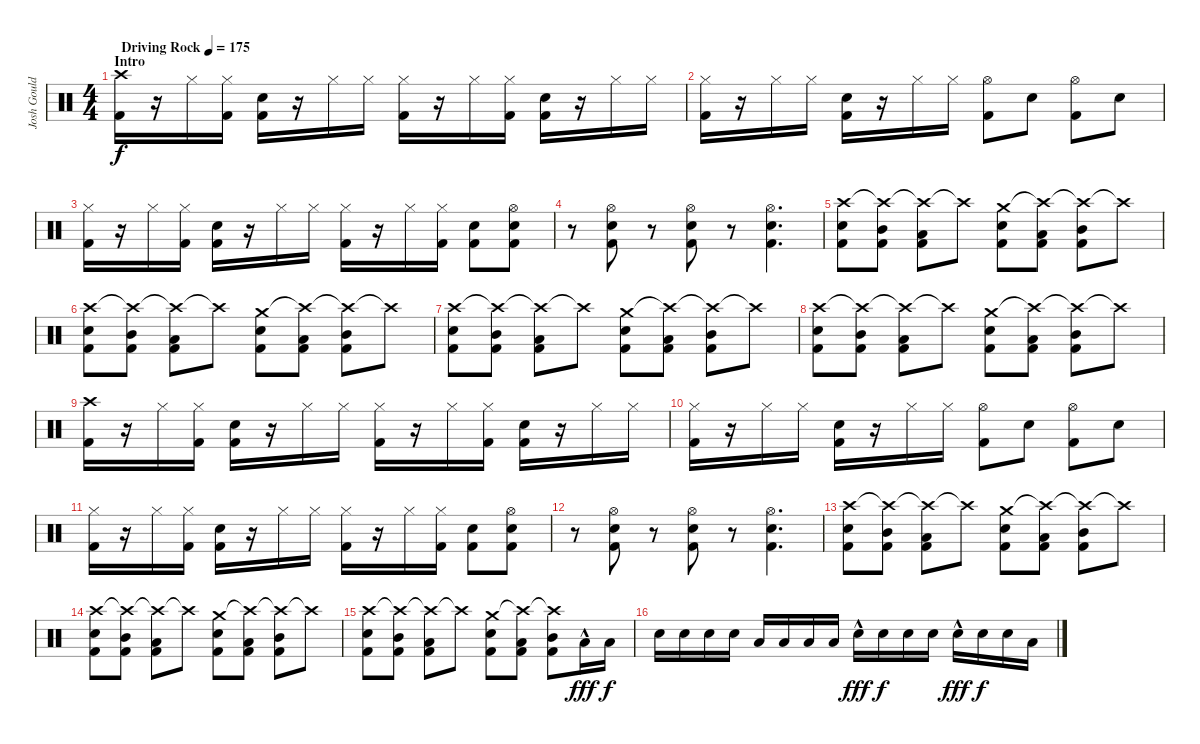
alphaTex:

\track ("Josh Gould - Drums" "Josh Gould") {instrument percussion}
\staff {score}
\articulation defaults
\ts (4 4)
\section ("" "Intro")
\tempo (175 "Driving Rock")
\clef neutral
\ks c
("Crash high (hit)" "Kick (hit) 2").16{dy f} r.16 "Hi-Hat (closed)".16 ("Hi-Hat (closed)" "Kick (hit) 2").16 ("Snare (hit) 2" "Kick (hit) 2").16 r.16 "Hi-Hat (closed)".16 "Hi-Hat (closed)".16 ("Hi-Hat (closed)" "Kick (hit) 2").16 r.16 "Hi-Hat (closed)".16 ("Hi-Hat (closed)" "Kick (hit) 2").16 ("Snare (hit) 2" "Kick (hit) 2").16 r.16 "Hi-Hat (closed)".16 "Hi-Hat (closed)".16 |
("Hi-Hat (closed)" "Kick (hit) 2").16 r.16 "Hi-Hat (closed)".16 "Hi-Hat (closed)".16 ("Snare (hit) 2" "Kick (hit) 2").16 r.16 "Hi-Hat (closed)".16 "Hi-Hat (closed)".16 ("Hi-Hat (open)" "Kick (hit) 2").8 "Snare (hit) 2".8 ("Hi-Hat (open)" "Kick (hit) 2").8 "Snare (hit) 2".8 |
("Hi-Hat (closed)" "Kick (hit) 2").16 r.16 "Hi-Hat (closed)".16 ("Hi-Hat (closed)" "Kick (hit) 2").16 ("Snare (hit) 2" "Kick (hit) 2").16 r.16 "Hi-Hat (closed)".16 "Hi-Hat (closed)".16 ("Hi-Hat (closed)" "Kick (hit) 2").16 r.16 "Hi-Hat (closed)".16 ("Hi-Hat (closed)" "Kick (hit) 2").16 ("Snare (hit) 2" "Kick (hit) 2").8 ("Hi-Hat (open)" "Snare (hit) 2" "Kick (hit) 2").8 |
r.8 ("Hi-Hat (open)" "Snare (hit) 2" "Kick (hit) 2").8 r.8 ("Hi-Hat (open)" "Snare (hit) 2" "Kick (hit) 2").8 r.8 ("Hi-Hat (open)" "Snare (hit) 2" "Kick (hit) 2").4{d} |
("Crash high (hit)" "Snare (hit) 2" "Kick (hit) 2").8 ("Crash high (hit)"{t} "Mid Tom (hit)" "Kick (hit) 2").8 ("Crash high (hit)"{t} "Low Tom (hit)" "Kick (hit) 2").8 "Crash high (hit)"{t}.8 ("Crash medium (hit)" "Snare (hit) 2" "Kick (hit) 2").8 ("Crash high (hit)"{t} "Low Tom (hit)" "Kick (hit) 2").8 ("Crash high (hit)"{t} "Mid Tom (hit)" "Kick (hit) 2").8 "Crash high (hit)"{t}.8 |
("Crash high (hit)" "Snare (hit) 2" "Kick (hit) 2").8 ("Crash high (hit)"{t} "Mid Tom (hit)" "Kick (hit) 2").8 ("Crash high (hit)"{t} "Low Tom (hit)" "Kick (hit) 2").8 "Crash high (hit)"{t}.8 ("Crash medium (hit)" "Snare (hit) 2" "Kick (hit) 2").8 ("Crash high (hit)"{t} "Low Tom (hit)" "Kick (hit) 2").8 ("Crash high (hit)"{t} "Mid Tom (hit)" "Kick (hit) 2").8 "Crash high (hit)"{t}.8 |
("Crash high (hit)" "Snare (hit) 2" "Kick (hit) 2").8 ("Crash high (hit)"{t} "Mid Tom (hit)" "Kick (hit) 2").8 ("Crash high (hit)"{t} "Low Tom (hit)" "Kick (hit) 2").8 "Crash high (hit)"{t}.8 ("Crash medium (hit)" "Snare (hit) 2" "Kick (hit) 2").8 ("Crash high (hit)"{t} "Low Tom (hit)" "Kick (hit) 2").8 ("Crash high (hit)"{t} "Mid Tom (hit)" "Kick (hit) 2").8 "Crash high (hit)"{t}.8 |
("Crash high (hit)" "Snare (hit) 2" "Kick (hit) 2").8 ("Crash high (hit)"{t} "Mid Tom (hit)" "Kick (hit) 2").8 ("Crash high (hit)"{t} "Low Tom (hit)" "Kick (hit) 2").8 "Crash high (hit)"{t}.8 ("Crash medium (hit)" "Snare (hit) 2" "Kick (hit) 2").8 ("Crash high (hit)"{t} "Low Tom (hit)" "Kick (hit) 2").8 ("Crash high (hit)"{t} "Mid Tom (hit)" "Kick (hit) 2").8 "Crash high (hit)"{t}.8 |
("Crash high (hit)" "Kick (hit) 2").16 r.16 "Hi-Hat (closed)".16 ("Hi-Hat (closed)" "Kick (hit) 2").16 ("Snare (hit) 2" "Kick (hit) 2").16 r.16 "Hi-Hat (closed)".16 "Hi-Hat (closed)".16 ("Hi-Hat (closed)" "Kick (hit) 2").16 r.16 "Hi-Hat (closed)".16 ("Hi-Hat (closed)" "Kick (hit) 2").16 ("Snare (hit) 2" "Kick (hit) 2").16 r.16 "Hi-Hat (closed)".16 "Hi-Hat (closed)".16 |
("Hi-Hat (closed)" "Kick (hit) 2").16 r.16 "Hi-Hat (closed)".16 "Hi-Hat (closed)".16 ("Snare (hit) 2" "Kick (hit) 2").16 r.16 "Hi-Hat (closed)".16 "Hi-Hat (closed)".16 ("Hi-Hat (open)" "Kick (hit) 2").8 "Snare (hit) 2".8 ("Hi-Hat (open)" "Kick (hit) 2").8 "Snare (hit) 2".8 |
("Hi-Hat (closed)" "Kick (hit) 2").16 r.16 "Hi-Hat (closed)".16 ("Hi-Hat (closed)" "Kick (hit) 2").16 ("Snare (hit) 2" "Kick (hit) 2").16 r.16 "Hi-Hat (closed)".16 "Hi-Hat (closed)".16 ("Hi-Hat (closed)" "Kick (hit) 2").16 r.16 "Hi-Hat (closed)".16 ("Hi-Hat (closed)" "Kick (hit) 2").16 ("Snare (hit) 2" "Kick (hit) 2").8 ("Hi-Hat (open)" "Snare (hit) 2" "Kick (hit) 2").8 |
r.8 ("Hi-Hat (open)" "Snare (hit) 2" "Kick (hit) 2").8 r.8 ("Hi-Hat (open)" "Snare (hit) 2" "Kick (hit) 2").8 r.8 ("Hi-Hat (open)" "Snare (hit) 2" "Kick (hit) 2").4{d} |
("Crash high (hit)" "Snare (hit) 2" "Kick (hit) 2").8 ("Crash high (hit)"{t} "Mid Tom (hit)" "Kick (hit) 2").8 ("Crash high (hit)"{t} "Low Tom (hit)" "Kick (hit) 2").8 "Crash high (hit)"{t}.8 ("Crash medium (hit)" "Snare (hit) 2" "Kick (hit) 2").8 ("Crash high (hit)"{t} "Low Tom (hit)" "Kick (hit) 2").8 ("Crash high (hit)"{t} "Mid Tom (hit)" "Kick (hit) 2").8 "Crash high (hit)"{t}.8 |
("Crash high (hit)" "Snare (hit) 2" "Kick (hit) 2").8 ("Crash high (hit)"{t} "Mid Tom (hit)" "Kick (hit) 2").8 ("Crash high (hit)"{t} "Low Tom (hit)" "Kick (hit) 2").8 "Crash high (hit)"{t}.8 ("Crash medium (hit)" "Snare (hit) 2" "Kick (hit) 2").8 ("Crash high (hit)"{t} "Low Tom (hit)" "Kick (hit) 2").8 ("Crash high (hit)"{t} "Mid Tom (hit)" "Kick (hit) 2").8 "Crash high (hit)"{t}.8 |
("Crash high (hit)" "Snare (hit) 2" "Kick (hit) 2").8 ("Crash high (hit)"{t} "Mid Tom (hit)" "Kick (hit) 2").8 ("Crash high (hit)"{t} "Low Tom (hit)" "Kick (hit) 2").8 "Crash high (hit)"{t}.8 ("Crash medium (hit)" "Snare (hit) 2" "Kick (hit) 2").8 ("Crash high (hit)"{t} "Low Tom (hit)" "Kick (hit) 2").8 ("Crash high (hit)"{t} "Mid Tom (hit)" "Kick (hit) 2").8 "Low Tom (hit)"{hac}.16{dy fff} "Low Tom (hit)".16{dy f} |
"Snare (hit) 2".16 "Snare (hit) 2".16 "Snare (hit) 2".16 "Snare (hit) 2".16 "Low Tom (hit)".16 "Low Tom (hit)".16 "Low Tom (hit)".16 "Low Tom (hit)".16 "Snare (hit) 2"{hac}.16{dy fff} "Snare (hit) 2".16{dy f} "Snare (hit) 2".16 "Snare (hit) 2".16 "Snare (hit) 2"{hac}.16{dy fff} "Snare (hit) 2".16{dy f} "Snare (hit) 2".16 "Low Tom (hit)".16
